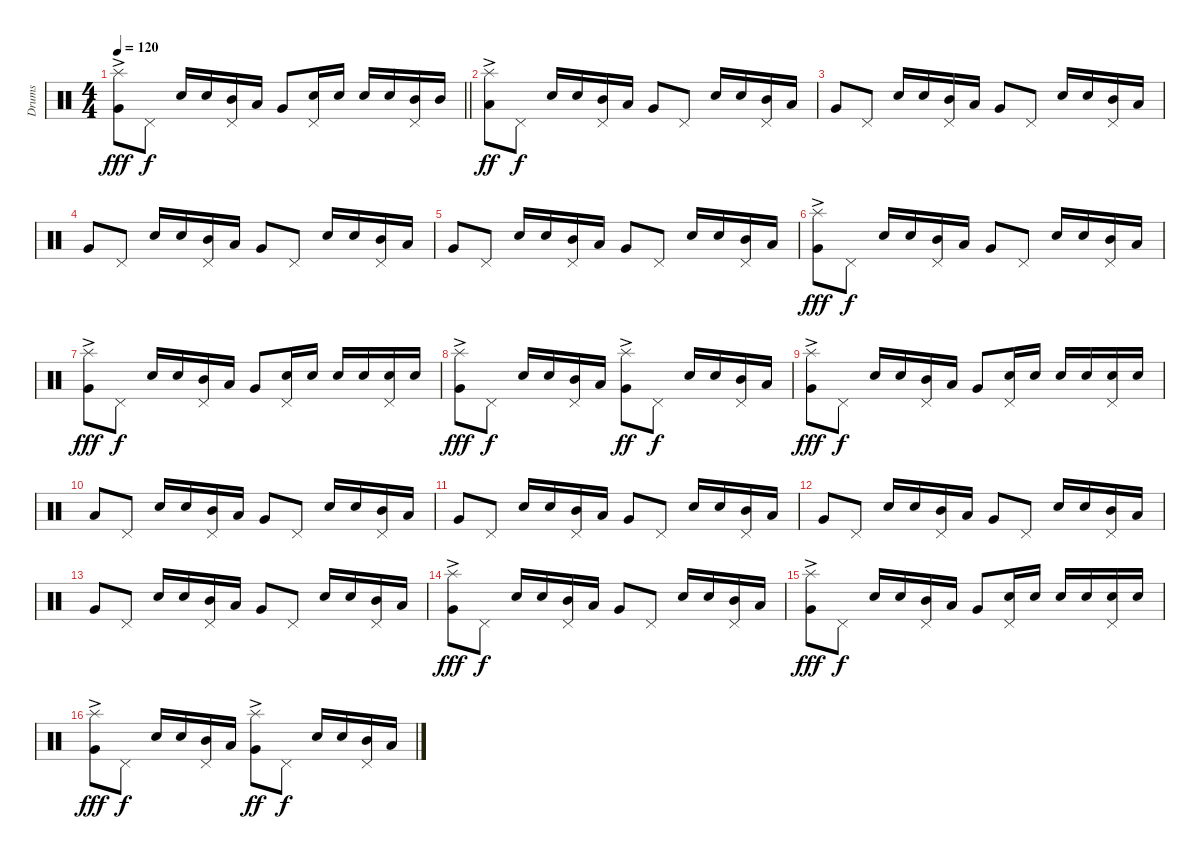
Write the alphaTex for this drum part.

\track ("Drums" "Drums") {instrument percussion}
\staff {score}
\articulation defaults
\ts (4 4)
\tempo 120
\clef neutral
\barLineRight lightlight
\ks c
("Splash (hit)"{ac} "Very Low Tom (hit)").8{dy fff} "Pedal Hi-Hat (hit)".8{dy f} "Snare (hit) 2".16 "Snare (hit) 2".16 ("Mid Tom (hit)" "Pedal Hi-Hat (hit)").16 "Low Tom (hit)".16 "Very Low Tom (hit)".8 ("Snare (hit) 2" "Pedal Hi-Hat (hit)").16 "Snare (hit) 2".16 "Snare (hit) 2".16 "Snare (hit) 2".16 ("Mid Tom (hit)" "Pedal Hi-Hat (hit)").16 "Mid Tom (hit)".16 |
("Splash (hit)"{ac} "Low Tom (hit)").8{dy ff} "Pedal Hi-Hat (hit)".8{dy f} "Snare (hit) 2".16 "Snare (hit) 2".16 ("Mid Tom (hit)" "Pedal Hi-Hat (hit)").16 "Low Tom (hit)".16 "Very Low Tom (hit)".8 "Pedal Hi-Hat (hit)".8 "Snare (hit) 2".16 "Snare (hit) 2".16 ("Mid Tom (hit)" "Pedal Hi-Hat (hit)").16 "Low Tom (hit)".16 |
"Very Low Tom (hit)".8 "Pedal Hi-Hat (hit)".8 "Snare (hit) 2".16 "Snare (hit) 2".16 ("Mid Tom (hit)" "Pedal Hi-Hat (hit)").16 "Low Tom (hit)".16 "Very Low Tom (hit)".8 "Pedal Hi-Hat (hit)".8 "Snare (hit) 2".16 "Snare (hit) 2".16 ("Mid Tom (hit)" "Pedal Hi-Hat (hit)").16 "Low Tom (hit)".16 |
"Very Low Tom (hit)".8 "Pedal Hi-Hat (hit)".8 "Snare (hit) 2".16 "Snare (hit) 2".16 ("Mid Tom (hit)" "Pedal Hi-Hat (hit)").16 "Low Tom (hit)".16 "Very Low Tom (hit)".8 "Pedal Hi-Hat (hit)".8 "Snare (hit) 2".16 "Snare (hit) 2".16 ("Mid Tom (hit)" "Pedal Hi-Hat (hit)").16 "Low Tom (hit)".16 |
"Very Low Tom (hit)".8 "Pedal Hi-Hat (hit)".8 "Snare (hit) 2".16 "Snare (hit) 2".16 ("Mid Tom (hit)" "Pedal Hi-Hat (hit)").16 "Low Tom (hit)".16 "Very Low Tom (hit)".8 "Pedal Hi-Hat (hit)".8 "Snare (hit) 2".16 "Snare (hit) 2".16 ("Mid Tom (hit)" "Pedal Hi-Hat (hit)").16 "Low Tom (hit)".16 |
("Splash (hit)"{ac} "Very Low Tom (hit)").8{dy fff} "Pedal Hi-Hat (hit)".8{dy f} "Snare (hit) 2".16 "Snare (hit) 2".16 ("Mid Tom (hit)" "Pedal Hi-Hat (hit)").16 "Low Tom (hit)".16 "Very Low Tom (hit)".8 "Pedal Hi-Hat (hit)".8 "Snare (hit) 2".16 "Snare (hit) 2".16 ("Mid Tom (hit)" "Pedal Hi-Hat (hit)").16 "Low Tom (hit)".16 |
("Splash (hit)"{ac} "Very Low Tom (hit)").8{dy fff} "Pedal Hi-Hat (hit)".8{dy f} "Snare (hit) 2".16 "Snare (hit) 2".16 ("Mid Tom (hit)" "Pedal Hi-Hat (hit)").16 "Low Tom (hit)".16 "Very Low Tom (hit)".8 ("Snare (hit) 2" "Pedal Hi-Hat (hit)").16 "Snare (hit) 2".16 "Snare (hit) 2".16 "Snare (hit) 2".16 ("Snare (hit) 2" "Pedal Hi-Hat (hit)").16 "Snare (hit) 2".16 |
("Splash (hit)"{ac} "Very Low Tom (hit)").8{dy fff} "Pedal Hi-Hat (hit)".8{dy f} "Snare (hit) 2".16 "Snare (hit) 2".16 ("Mid Tom (hit)" "Pedal Hi-Hat (hit)").16 "Low Tom (hit)".16 ("Splash (hit)"{ac} "Very Low Tom (hit)").8{dy ff} "Pedal Hi-Hat (hit)".8{dy f} "Snare (hit) 2".16 "Snare (hit) 2".16 ("Mid Tom (hit)" "Pedal Hi-Hat (hit)").16 "Low Tom (hit)".16 |
("Splash (hit)"{ac} "Very Low Tom (hit)").8{dy fff} "Pedal Hi-Hat (hit)".8{dy f} "Snare (hit) 2".16 "Snare (hit) 2".16 ("Mid Tom (hit)" "Pedal Hi-Hat (hit)").16 "Low Tom (hit)".16 "Very Low Tom (hit)".8 ("Snare (hit) 2" "Pedal Hi-Hat (hit)").16 "Snare (hit) 2".16 "Snare (hit) 2".16 "Snare (hit) 2".16 ("Snare (hit) 2" "Pedal Hi-Hat (hit)").16 "Snare (hit) 2".16 |
"Low Tom (hit)".8 "Pedal Hi-Hat (hit)".8 "Snare (hit) 2".16 "Snare (hit) 2".16 ("Mid Tom (hit)" "Pedal Hi-Hat (hit)").16 "Low Tom (hit)".16 "Very Low Tom (hit)".8 "Pedal Hi-Hat (hit)".8 "Snare (hit) 2".16 "Snare (hit) 2".16 ("Mid Tom (hit)" "Pedal Hi-Hat (hit)").16 "Low Tom (hit)".16 |
"Very Low Tom (hit)".8 "Pedal Hi-Hat (hit)".8 "Snare (hit) 2".16 "Snare (hit) 2".16 ("Mid Tom (hit)" "Pedal Hi-Hat (hit)").16 "Low Tom (hit)".16 "Very Low Tom (hit)".8 "Pedal Hi-Hat (hit)".8 "Snare (hit) 2".16 "Snare (hit) 2".16 ("Mid Tom (hit)" "Pedal Hi-Hat (hit)").16 "Low Tom (hit)".16 |
"Very Low Tom (hit)".8 "Pedal Hi-Hat (hit)".8 "Snare (hit) 2".16 "Snare (hit) 2".16 ("Mid Tom (hit)" "Pedal Hi-Hat (hit)").16 "Low Tom (hit)".16 "Very Low Tom (hit)".8 "Pedal Hi-Hat (hit)".8 "Snare (hit) 2".16 "Snare (hit) 2".16 ("Mid Tom (hit)" "Pedal Hi-Hat (hit)").16 "Low Tom (hit)".16 |
"Very Low Tom (hit)".8 "Pedal Hi-Hat (hit)".8 "Snare (hit) 2".16 "Snare (hit) 2".16 ("Mid Tom (hit)" "Pedal Hi-Hat (hit)").16 "Low Tom (hit)".16 "Very Low Tom (hit)".8 "Pedal Hi-Hat (hit)".8 "Snare (hit) 2".16 "Snare (hit) 2".16 ("Mid Tom (hit)" "Pedal Hi-Hat (hit)").16 "Low Tom (hit)".16 |
("Splash (hit)"{ac} "Very Low Tom (hit)").8{dy fff} "Pedal Hi-Hat (hit)".8{dy f} "Snare (hit) 2".16 "Snare (hit) 2".16 ("Mid Tom (hit)" "Pedal Hi-Hat (hit)").16 "Low Tom (hit)".16 "Very Low Tom (hit)".8 "Pedal Hi-Hat (hit)".8 "Snare (hit) 2".16 "Snare (hit) 2".16 ("Mid Tom (hit)" "Pedal Hi-Hat (hit)").16 "Low Tom (hit)".16 |
("Splash (hit)"{ac} "Very Low Tom (hit)").8{dy fff} "Pedal Hi-Hat (hit)".8{dy f} "Snare (hit) 2".16 "Snare (hit) 2".16 ("Mid Tom (hit)" "Pedal Hi-Hat (hit)").16 "Low Tom (hit)".16 "Very Low Tom (hit)".8 ("Snare (hit) 2" "Pedal Hi-Hat (hit)").16 "Snare (hit) 2".16 "Snare (hit) 2".16 "Snare (hit) 2".16 ("Snare (hit) 2" "Pedal Hi-Hat (hit)").16 "Snare (hit) 2".16 |
("Splash (hit)"{ac} "Very Low Tom (hit)").8{dy fff} "Pedal Hi-Hat (hit)".8{dy f} "Snare (hit) 2".16 "Snare (hit) 2".16 ("Mid Tom (hit)" "Pedal Hi-Hat (hit)").16 "Low Tom (hit)".16 ("Splash (hit)"{ac} "Very Low Tom (hit)").8{dy ff} "Pedal Hi-Hat (hit)".8{dy f} "Snare (hit) 2".16 "Snare (hit) 2".16 ("Mid Tom (hit)" "Pedal Hi-Hat (hit)").16 "Low Tom (hit)".16
